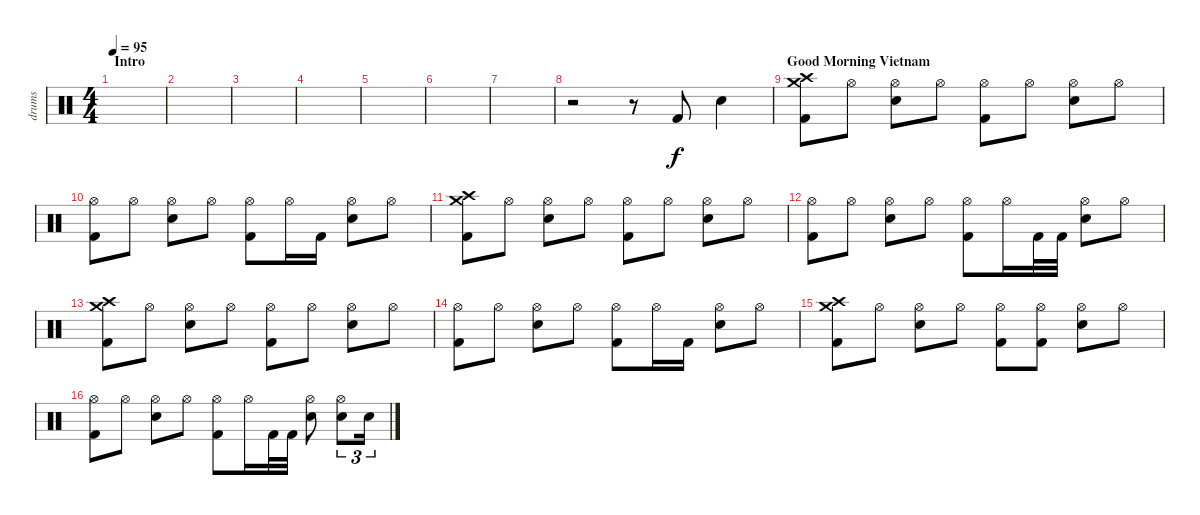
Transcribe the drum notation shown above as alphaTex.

\track ("drums" "drums") {instrument percussion}
\staff {score}
\articulation defaults
\ts (4 4)
\section ("" "Intro")
\tempo 95
\clef neutral
\ks c
|
|
|
|
|
|
|
r.2 r.8 "Kick (hit) 2".8 "Electric Snare (hit)".4 |
\section ("" "Good Morning Vietnam")
("Crash high (hit)" "Crash medium (hit)" "Kick (hit) 2").8 "Hi-Hat (open)".8 ("Hi-Hat (open)" "Electric Snare (hit)").8 "Hi-Hat (open)".8 ("Hi-Hat (open)" "Kick (hit) 2").8 "Hi-Hat (open)".8 ("Hi-Hat (open)" "Electric Snare (hit)").8 "Hi-Hat (open)".8 |
("Hi-Hat (open)" "Kick (hit) 2").8 "Hi-Hat (open)".8 ("Hi-Hat (open)" "Electric Snare (hit)").8 "Hi-Hat (open)".8 ("Hi-Hat (open)" "Kick (hit) 2").8 "Hi-Hat (open)".16 "Kick (hit) 2".16 ("Hi-Hat (open)" "Electric Snare (hit)").8 "Hi-Hat (open)".8 |
("Crash high (hit)" "Crash medium (hit)" "Kick (hit) 2").8 "Hi-Hat (open)".8 ("Hi-Hat (open)" "Electric Snare (hit)").8 "Hi-Hat (open)".8 ("Hi-Hat (open)" "Kick (hit) 2").8 "Hi-Hat (open)".8 ("Hi-Hat (open)" "Electric Snare (hit)").8 "Hi-Hat (open)".8 |
("Hi-Hat (open)" "Kick (hit) 2").8 "Hi-Hat (open)".8 ("Hi-Hat (open)" "Electric Snare (hit)").8 "Hi-Hat (open)".8 ("Hi-Hat (open)" "Kick (hit) 2").8 "Hi-Hat (open)".16 "Kick (hit) 2".32 "Kick (hit) 2".32 ("Hi-Hat (open)" "Electric Snare (hit)").8 "Hi-Hat (open)".8 |
("Crash high (hit)" "Crash medium (hit)" "Kick (hit) 2").8 "Hi-Hat (open)".8 ("Hi-Hat (open)" "Electric Snare (hit)").8 "Hi-Hat (open)".8 ("Hi-Hat (open)" "Kick (hit) 2").8 "Hi-Hat (open)".8 ("Hi-Hat (open)" "Electric Snare (hit)").8 "Hi-Hat (open)".8 |
("Hi-Hat (open)" "Kick (hit) 2").8 "Hi-Hat (open)".8 ("Hi-Hat (open)" "Electric Snare (hit)").8 "Hi-Hat (open)".8 ("Hi-Hat (open)" "Kick (hit) 2").8 "Hi-Hat (open)".16 "Kick (hit) 2".16 ("Hi-Hat (open)" "Electric Snare (hit)").8 "Hi-Hat (open)".8 |
("Crash high (hit)" "Crash medium (hit)" "Kick (hit) 2").8 "Hi-Hat (open)".8 ("Hi-Hat (open)" "Electric Snare (hit)").8 "Hi-Hat (open)".8 ("Hi-Hat (open)" "Kick (hit) 2").8 ("Hi-Hat (open)" "Kick (hit) 2").8 ("Hi-Hat (open)" "Electric Snare (hit)").8 "Hi-Hat (open)".8 |
("Hi-Hat (open)" "Kick (hit) 2").8 "Hi-Hat (open)".8 ("Hi-Hat (open)" "Electric Snare (hit)").8 "Hi-Hat (open)".8 ("Hi-Hat (open)" "Kick (hit) 2").8 "Hi-Hat (open)".16 "Kick (hit) 2".32 "Kick (hit) 2".32 ("Hi-Hat (open)" "Electric Snare (hit)").8 ("Hi-Hat (open)" "Electric Snare (hit)").8{tu (3 2)} "Electric Snare (hit)".16{tu (3 2)}
